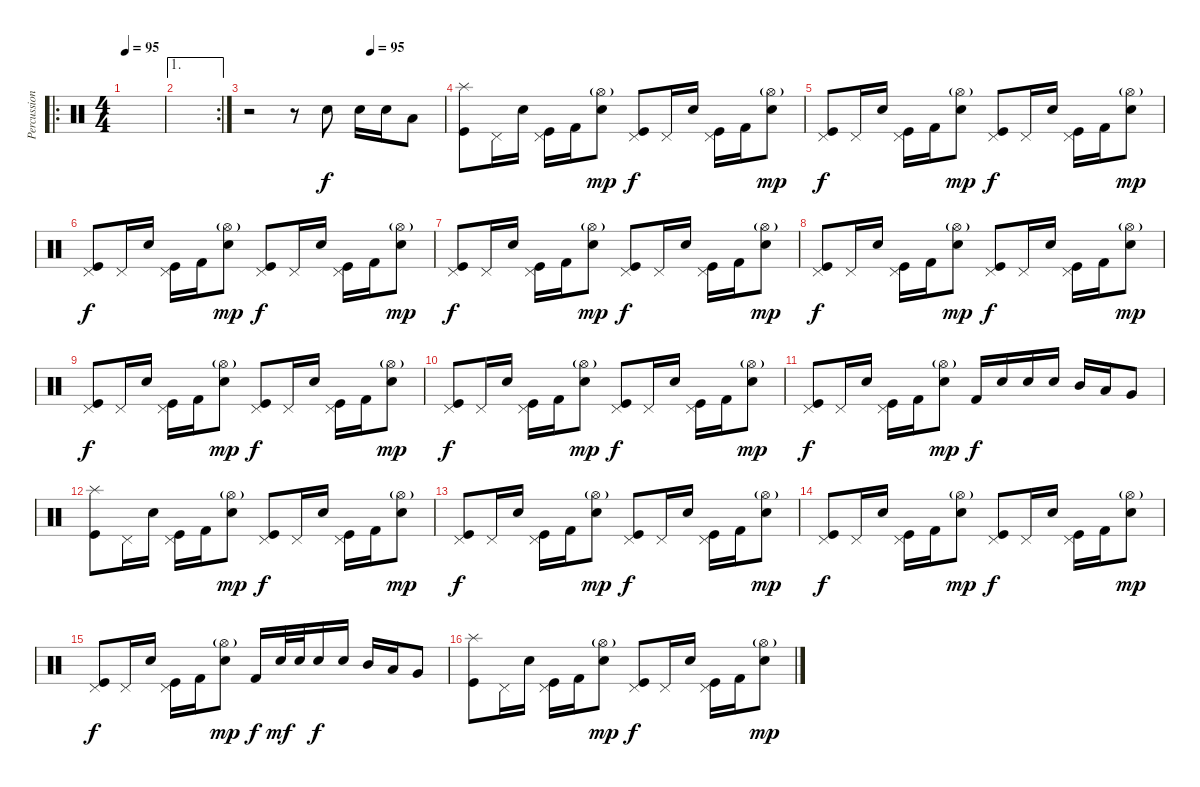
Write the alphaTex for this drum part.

\track ("Percussion" "Percussion") {instrument percussion}
\staff {score}
\articulation defaults
\ro
\ts (4 4)
\tempo 95
\tempo 86
\tempo 95
\clef neutral
\ks c
|
\ae 1
\rc 2
|
\tempo (95 0.625)
r.2 r.8 "Electric Snare (hit)".8 "Electric Snare (hit)".16 "Electric Snare (hit)".16 "Low Tom (hit)".8 |
("Splash (hit)" "Kick (hit)").8 "Pedal Hi-Hat (hit)".16 "Electric Snare (hit)".16 ("Pedal Hi-Hat (hit)" "Kick (hit)").16 "Kick (hit) 2".16 ("Hi-Hat (open)"{g} "Electric Snare (hit)").8{dy mp} ("Pedal Hi-Hat (hit)" "Kick (hit)").8{dy f} "Pedal Hi-Hat (hit)".16 "Electric Snare (hit)".16 ("Pedal Hi-Hat (hit)" "Kick (hit)").16 "Kick (hit) 2".16 ("Hi-Hat (open)"{g} "Electric Snare (hit)").8{dy mp} |
("Pedal Hi-Hat (hit)" "Kick (hit)").8{dy f} "Pedal Hi-Hat (hit)".16 "Electric Snare (hit)".16 ("Pedal Hi-Hat (hit)" "Kick (hit)").16 "Kick (hit) 2".16 ("Hi-Hat (open)"{g} "Electric Snare (hit)").8{dy mp} ("Pedal Hi-Hat (hit)" "Kick (hit)").8{dy f} "Pedal Hi-Hat (hit)".16 "Electric Snare (hit)".16 ("Pedal Hi-Hat (hit)" "Kick (hit)").16 "Kick (hit) 2".16 ("Hi-Hat (open)"{g} "Electric Snare (hit)").8{dy mp} |
("Pedal Hi-Hat (hit)" "Kick (hit)").8{dy f} "Pedal Hi-Hat (hit)".16 "Electric Snare (hit)".16 ("Pedal Hi-Hat (hit)" "Kick (hit)").16 "Kick (hit) 2".16 ("Hi-Hat (open)"{g} "Electric Snare (hit)").8{dy mp} ("Pedal Hi-Hat (hit)" "Kick (hit)").8{dy f} "Pedal Hi-Hat (hit)".16 "Electric Snare (hit)".16 ("Pedal Hi-Hat (hit)" "Kick (hit)").16 "Kick (hit) 2".16 ("Hi-Hat (open)"{g} "Electric Snare (hit)").8{dy mp} |
("Pedal Hi-Hat (hit)" "Kick (hit)").8{dy f} "Pedal Hi-Hat (hit)".16 "Electric Snare (hit)".16 ("Pedal Hi-Hat (hit)" "Kick (hit)").16 "Kick (hit) 2".16 ("Hi-Hat (open)"{g} "Electric Snare (hit)").8{dy mp} ("Pedal Hi-Hat (hit)" "Kick (hit)").8{dy f} "Pedal Hi-Hat (hit)".16 "Electric Snare (hit)".16 ("Pedal Hi-Hat (hit)" "Kick (hit)").16 "Kick (hit) 2".16 ("Hi-Hat (open)"{g} "Electric Snare (hit)").8{dy mp} |
("Pedal Hi-Hat (hit)" "Kick (hit)").8{dy f} "Pedal Hi-Hat (hit)".16 "Electric Snare (hit)".16 ("Pedal Hi-Hat (hit)" "Kick (hit)").16 "Kick (hit) 2".16 ("Hi-Hat (open)"{g} "Electric Snare (hit)").8{dy mp} ("Pedal Hi-Hat (hit)" "Kick (hit)").8{dy f} "Pedal Hi-Hat (hit)".16 "Electric Snare (hit)".16 ("Pedal Hi-Hat (hit)" "Kick (hit)").16 "Kick (hit) 2".16 ("Hi-Hat (open)"{g} "Electric Snare (hit)").8{dy mp} |
("Pedal Hi-Hat (hit)" "Kick (hit)").8{dy f} "Pedal Hi-Hat (hit)".16 "Electric Snare (hit)".16 ("Pedal Hi-Hat (hit)" "Kick (hit)").16 "Kick (hit) 2".16 ("Hi-Hat (open)"{g} "Electric Snare (hit)").8{dy mp} ("Pedal Hi-Hat (hit)" "Kick (hit)").8{dy f} "Pedal Hi-Hat (hit)".16 "Electric Snare (hit)".16 ("Pedal Hi-Hat (hit)" "Kick (hit)").16 "Kick (hit) 2".16 ("Hi-Hat (open)"{g} "Electric Snare (hit)").8{dy mp} |
("Pedal Hi-Hat (hit)" "Kick (hit)").8{dy f} "Pedal Hi-Hat (hit)".16 "Electric Snare (hit)".16 ("Pedal Hi-Hat (hit)" "Kick (hit)").16 "Kick (hit) 2".16 ("Hi-Hat (open)"{g} "Electric Snare (hit)").8{dy mp} ("Pedal Hi-Hat (hit)" "Kick (hit)").8{dy f} "Pedal Hi-Hat (hit)".16 "Electric Snare (hit)".16 ("Pedal Hi-Hat (hit)" "Kick (hit)").16 "Kick (hit) 2".16 ("Hi-Hat (open)"{g} "Electric Snare (hit)").8{dy mp} |
("Pedal Hi-Hat (hit)" "Kick (hit)").8{dy f} "Pedal Hi-Hat (hit)".16 "Electric Snare (hit)".16 ("Pedal Hi-Hat (hit)" "Kick (hit)").16 "Kick (hit) 2".16 ("Hi-Hat (open)"{g} "Electric Snare (hit)").8{dy mp} "Kick (hit) 2".16{dy f} "Electric Snare (hit)".16 "Electric Snare (hit)".16 "Electric Snare (hit)".16 "Mid Tom (hit)".16 "Low Tom (hit)".16 "Very Low Tom (hit)".8 |
("Splash (hit)" "Kick (hit)").8 "Pedal Hi-Hat (hit)".16 "Electric Snare (hit)".16 ("Pedal Hi-Hat (hit)" "Kick (hit)").16 "Kick (hit) 2".16 ("Hi-Hat (open)"{g} "Electric Snare (hit)").8{dy mp} ("Pedal Hi-Hat (hit)" "Kick (hit)").8{dy f} "Pedal Hi-Hat (hit)".16 "Electric Snare (hit)".16 ("Pedal Hi-Hat (hit)" "Kick (hit)").16 "Kick (hit) 2".16 ("Hi-Hat (open)"{g} "Electric Snare (hit)").8{dy mp} |
("Pedal Hi-Hat (hit)" "Kick (hit)").8{dy f} "Pedal Hi-Hat (hit)".16 "Electric Snare (hit)".16 ("Pedal Hi-Hat (hit)" "Kick (hit)").16 "Kick (hit) 2".16 ("Hi-Hat (open)"{g} "Electric Snare (hit)").8{dy mp} ("Pedal Hi-Hat (hit)" "Kick (hit)").8{dy f} "Pedal Hi-Hat (hit)".16 "Electric Snare (hit)".16 ("Pedal Hi-Hat (hit)" "Kick (hit)").16 "Kick (hit) 2".16 ("Hi-Hat (open)"{g} "Electric Snare (hit)").8{dy mp} |
("Pedal Hi-Hat (hit)" "Kick (hit)").8{dy f} "Pedal Hi-Hat (hit)".16 "Electric Snare (hit)".16 ("Pedal Hi-Hat (hit)" "Kick (hit)").16 "Kick (hit) 2".16 ("Hi-Hat (open)"{g} "Electric Snare (hit)").8{dy mp} ("Pedal Hi-Hat (hit)" "Kick (hit)").8{dy f} "Pedal Hi-Hat (hit)".16 "Electric Snare (hit)".16 ("Pedal Hi-Hat (hit)" "Kick (hit)").16 "Kick (hit) 2".16 ("Hi-Hat (open)"{g} "Electric Snare (hit)").8{dy mp} |
("Pedal Hi-Hat (hit)" "Kick (hit)").8{dy f} "Pedal Hi-Hat (hit)".16 "Electric Snare (hit)".16 ("Pedal Hi-Hat (hit)" "Kick (hit)").16 "Kick (hit) 2".16 ("Hi-Hat (open)"{g} "Electric Snare (hit)").8{dy mp} "Kick (hit) 2".16{dy f} "Electric Snare (hit)".32{dy mf} "Electric Snare (hit)".32 "Electric Snare (hit)".16{dy f} "Electric Snare (hit)".16 "Mid Tom (hit)".16 "Low Tom (hit)".16 "Very Low Tom (hit)".8 |
("Splash (hit)" "Kick (hit)").8 "Pedal Hi-Hat (hit)".16 "Electric Snare (hit)".16 ("Pedal Hi-Hat (hit)" "Kick (hit)").16 "Kick (hit) 2".16 ("Hi-Hat (open)"{g} "Electric Snare (hit)").8{dy mp} ("Pedal Hi-Hat (hit)" "Kick (hit)").8{dy f} "Pedal Hi-Hat (hit)".16 "Electric Snare (hit)".16 ("Pedal Hi-Hat (hit)" "Kick (hit)").16 "Kick (hit) 2".16 ("Hi-Hat (open)"{g} "Electric Snare (hit)").8{dy mp}
